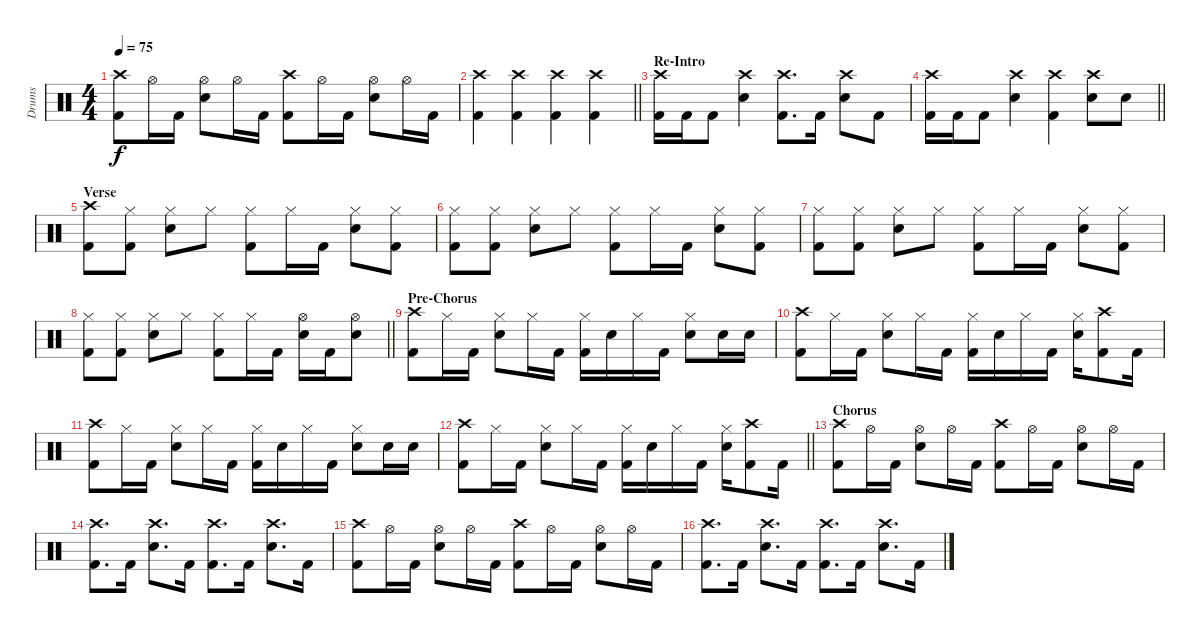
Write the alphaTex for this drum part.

\track ("Drums" "Drums") {instrument percussion}
\staff {score}
\articulation defaults
\ts (4 4)
\tempo 75
\clef neutral
\ks c
("Crash high (hit)" "Kick (hit) 2").8{dy f} "Hi-Hat (open)".16 "Kick (hit) 2".16 ("Hi-Hat (open)" "Snare (hit) 2").8 "Hi-Hat (open)".16 "Kick (hit) 2".16 ("Crash high (hit)" "Kick (hit) 2").8 "Hi-Hat (open)".16 "Kick (hit) 2".16 ("Hi-Hat (open)" "Snare (hit) 2").8 "Hi-Hat (open)".16 "Kick (hit) 2".16 |
\barLineRight lightlight
("Crash high (hit)" "Kick (hit) 2").4 ("Crash high (hit)" "Kick (hit) 2").4 ("Crash high (hit)" "Kick (hit) 2").4 ("Crash high (hit)" "Kick (hit) 2").4 |
\section ("" "Re-Intro")
("Crash high (hit)" "Kick (hit) 2").16 "Kick (hit) 2".16 "Kick (hit) 2".8 ("Crash high (hit)" "Snare (hit) 2").4 ("Crash high (hit)" "Kick (hit) 2").8{d} "Kick (hit) 2".16 ("Crash high (hit)" "Snare (hit) 2").8 "Kick (hit) 2".8 |
\barLineRight lightlight
("Crash high (hit)" "Kick (hit) 2").16 "Kick (hit) 2".16 "Kick (hit) 2".8 ("Crash high (hit)" "Snare (hit) 2").4 ("Crash high (hit)" "Kick (hit) 2").4 ("Crash high (hit)" "Snare (hit) 2").8 "Snare (hit) 2".8 |
\section ("" "Verse")
("Crash high (hit)" "Kick (hit) 2").8 ("Hi-Hat (closed)" "Kick (hit) 2").8 ("Hi-Hat (closed)" "Snare (hit) 2").8 "Hi-Hat (closed)".8 ("Hi-Hat (closed)" "Kick (hit) 2").8 "Hi-Hat (closed)".16 "Kick (hit) 2".16 ("Hi-Hat (closed)" "Snare (hit) 2").8 ("Hi-Hat (closed)" "Kick (hit) 2").8 |
("Hi-Hat (closed)" "Kick (hit) 2").8 ("Hi-Hat (closed)" "Kick (hit) 2").8 ("Hi-Hat (closed)" "Snare (hit) 2").8 "Hi-Hat (closed)".8 ("Hi-Hat (closed)" "Kick (hit) 2").8 "Hi-Hat (closed)".16 "Kick (hit) 2".16 ("Hi-Hat (closed)" "Snare (hit) 2").8 ("Hi-Hat (closed)" "Kick (hit) 2").8 |
("Hi-Hat (closed)" "Kick (hit) 2").8 ("Hi-Hat (closed)" "Kick (hit) 2").8 ("Hi-Hat (closed)" "Snare (hit) 2").8 "Hi-Hat (closed)".8 ("Hi-Hat (closed)" "Kick (hit) 2").8 "Hi-Hat (closed)".16 "Kick (hit) 2".16 ("Hi-Hat (closed)" "Snare (hit) 2").8 ("Hi-Hat (closed)" "Kick (hit) 2").8 |
\barLineRight lightlight
("Hi-Hat (closed)" "Kick (hit) 2").8 ("Hi-Hat (closed)" "Kick (hit) 2").8 ("Hi-Hat (closed)" "Snare (hit) 2").8 "Hi-Hat (closed)".8 ("Hi-Hat (closed)" "Kick (hit) 2").8 "Hi-Hat (closed)".16 "Kick (hit) 2".16 ("Hi-Hat (open)" "Snare (hit) 2").16 "Kick (hit) 2".16 ("Hi-Hat (open)" "Snare (hit) 2").8 |
\section ("" "Pre-Chorus")
("Crash high (hit)" "Kick (hit) 2").8 "Hi-Hat (closed)".16 "Kick (hit) 2".16 ("Hi-Hat (closed)" "Snare (hit) 2").8 "Hi-Hat (closed)".16 "Kick (hit) 2".16 ("Hi-Hat (closed)" "Kick (hit) 2").16 "Snare (hit) 2".16 "Hi-Hat (closed)".16 "Kick (hit) 2".16 ("Hi-Hat (closed)" "Snare (hit) 2").8 "Snare (hit) 2".16 "Snare (hit) 2".16 |
("Crash high (hit)" "Kick (hit) 2").8 "Hi-Hat (closed)".16 "Kick (hit) 2".16 ("Hi-Hat (closed)" "Snare (hit) 2").8 "Hi-Hat (closed)".16 "Kick (hit) 2".16 ("Hi-Hat (closed)" "Kick (hit) 2").16 "Snare (hit) 2".16 "Hi-Hat (closed)".16 "Kick (hit) 2".16 ("Hi-Hat (closed)" "Snare (hit) 2").16 ("Crash high (hit)" "Kick (hit) 2").8 "Kick (hit) 2".16 |
("Crash high (hit)" "Kick (hit) 2").8 "Hi-Hat (closed)".16 "Kick (hit) 2".16 ("Hi-Hat (closed)" "Snare (hit) 2").8 "Hi-Hat (closed)".16 "Kick (hit) 2".16 ("Hi-Hat (closed)" "Kick (hit) 2").16 "Snare (hit) 2".16 "Hi-Hat (closed)".16 "Kick (hit) 2".16 ("Hi-Hat (closed)" "Snare (hit) 2").8 "Snare (hit) 2".16 "Snare (hit) 2".16 |
\barLineRight lightlight
("Crash high (hit)" "Kick (hit) 2").8 "Hi-Hat (closed)".16 "Kick (hit) 2".16 ("Hi-Hat (closed)" "Snare (hit) 2").8 "Hi-Hat (closed)".16 "Kick (hit) 2".16 ("Hi-Hat (closed)" "Kick (hit) 2").16 "Snare (hit) 2".16 "Hi-Hat (closed)".16 "Kick (hit) 2".16 ("Hi-Hat (closed)" "Snare (hit) 2").16 ("Crash high (hit)" "Kick (hit) 2").8 "Kick (hit) 2".16 |
\section ("" "Chorus")
("Crash high (hit)" "Kick (hit) 2").8 "Hi-Hat (open)".16 "Kick (hit) 2".16 ("Hi-Hat (open)" "Snare (hit) 2").8 "Hi-Hat (open)".16 "Kick (hit) 2".16 ("Crash high (hit)" "Kick (hit) 2").8 "Hi-Hat (open)".16 "Kick (hit) 2".16 ("Hi-Hat (open)" "Snare (hit) 2").8 "Hi-Hat (open)".16 "Kick (hit) 2".16 |
("Crash high (hit)" "Kick (hit) 2").8{d} "Kick (hit) 2".16 ("Crash high (hit)" "Snare (hit) 2").8{d} "Kick (hit) 2".16 ("Crash high (hit)" "Kick (hit) 2").8{d} "Kick (hit) 2".16 ("Crash high (hit)" "Snare (hit) 2").8{d} "Kick (hit) 2".16 |
("Crash high (hit)" "Kick (hit) 2").8 "Hi-Hat (open)".16 "Kick (hit) 2".16 ("Hi-Hat (open)" "Snare (hit) 2").8 "Hi-Hat (open)".16 "Kick (hit) 2".16 ("Crash high (hit)" "Kick (hit) 2").8 "Hi-Hat (open)".16 "Kick (hit) 2".16 ("Hi-Hat (open)" "Snare (hit) 2").8 "Hi-Hat (open)".16 "Kick (hit) 2".16 |
("Crash high (hit)" "Kick (hit) 2").8{d} "Kick (hit) 2".16 ("Crash high (hit)" "Snare (hit) 2").8{d} "Kick (hit) 2".16 ("Crash high (hit)" "Kick (hit) 2").8{d} "Kick (hit) 2".16 ("Crash high (hit)" "Snare (hit) 2").8{d} "Kick (hit) 2".16
